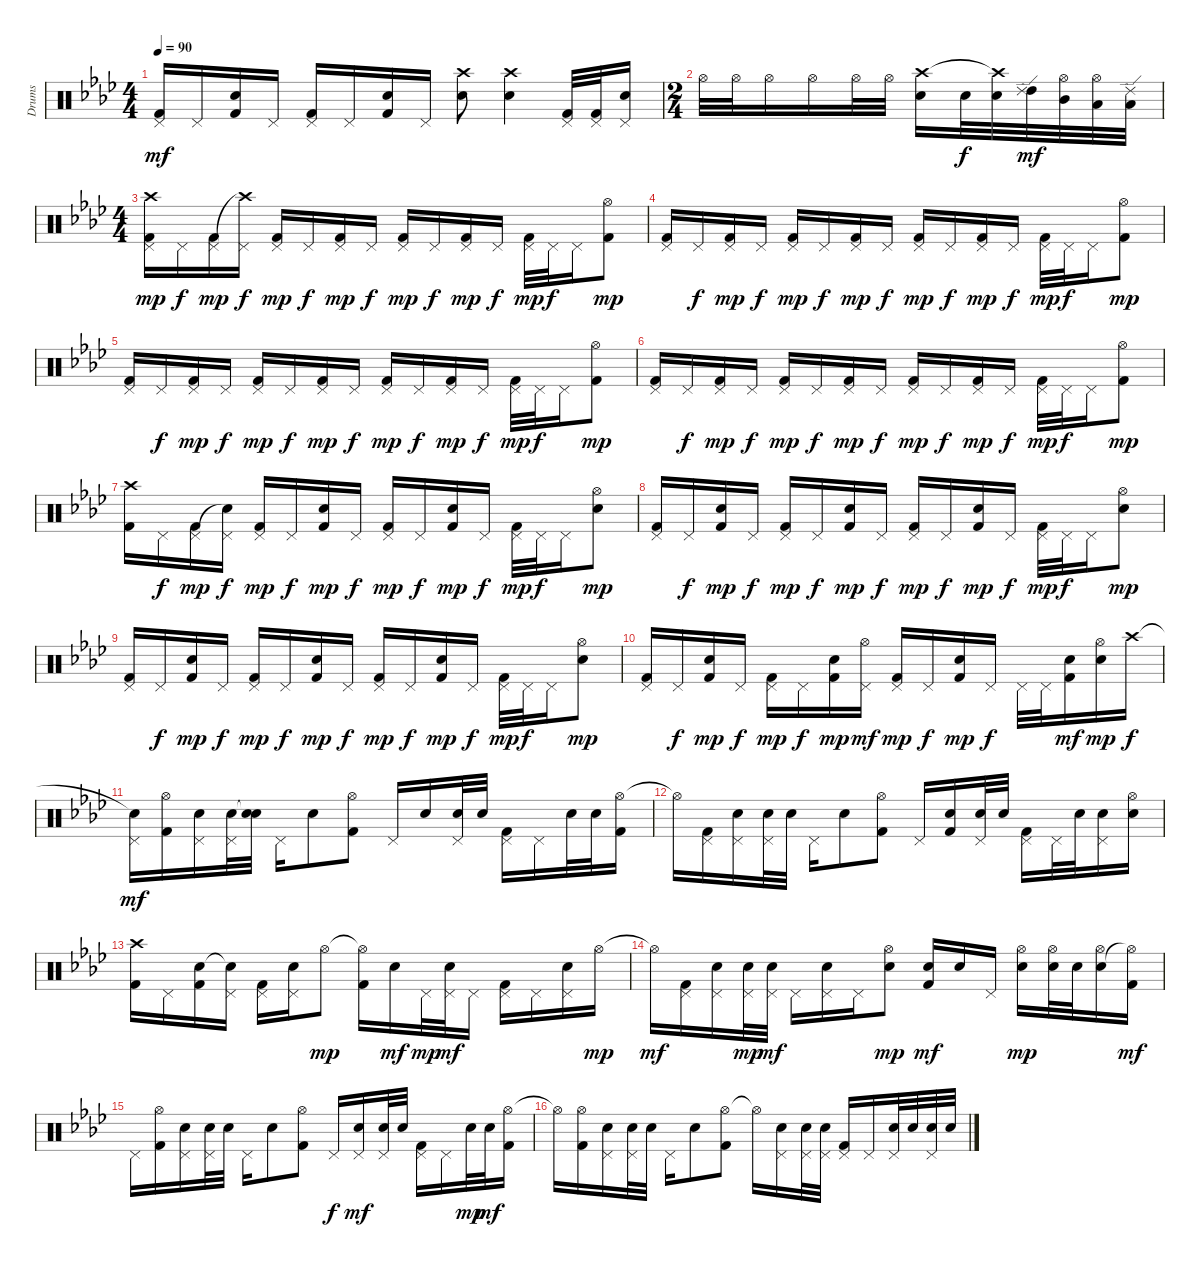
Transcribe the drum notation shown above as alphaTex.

\track ("Drums" "Drums") {instrument percussion}
\staff {score}
\articulation defaults
\ts (4 4)
\tempo 90
\clef neutral
\ks ab
("Pedal Hi-Hat (hit)" "Kick (hit) 2").16{dy mf} "Pedal Hi-Hat (hit)".16 ("Snare (hit) 2" "Kick (hit) 2").16 "Pedal Hi-Hat (hit)".16 ("Pedal Hi-Hat (hit)" "Kick (hit) 2").16 "Pedal Hi-Hat (hit)".16 ("Snare (hit) 2" "Kick (hit) 2").16 "Pedal Hi-Hat (hit)".16 ("Snare (hit) 2" "Crash high (hit)").8 ("Snare (hit) 2" "Crash high (hit)").4 ("Pedal Hi-Hat (hit)" "Kick (hit) 2").32 ("Pedal Hi-Hat (hit)" "Kick (hit) 2").32 ("Snare (hit) 2" "Pedal Hi-Hat (hit)").16 |
\ts (2 4)
"Hi-Hat (open)".32 "Hi-Hat (open)".32 "Hi-Hat (open)".16 "Hi-Hat (open)".16 "Hi-Hat (open)".32 "Hi-Hat (open)".32 ("Snare (hit) 2" "Crash high (hit)").16 "Snare (hit) 2".32{dy f} ("Snare (hit) 2" "Crash high (hit)"{t}).32 ("High Tom (hit)" "Ride (edge) 2").32{dy mf} ("Mid Tom (hit)" "Hi-Hat (open)").32 ("Low Tom (hit)" "Hi-Hat (open)").32 ("Low Floor Tom (hit)" "Ride (edge) 2").32 |
\ts (4 4)
("Crash high (hit)" "Pedal Hi-Hat (hit)" "Kick (hit) 2").16{dy mp} "Pedal Hi-Hat (hit)".16{dy f} ("Pedal Hi-Hat (hit)" "Kick (hit) 2").16{dy mp} ("Crash high (hit)"{t} "Pedal Hi-Hat (hit)").16{dy f} ("Pedal Hi-Hat (hit)" "Kick (hit) 2").16{dy mp} "Pedal Hi-Hat (hit)".16{dy f} ("Pedal Hi-Hat (hit)" "Kick (hit) 2").16{dy mp} "Pedal Hi-Hat (hit)".16{dy f} ("Pedal Hi-Hat (hit)" "Kick (hit) 2").16{dy mp} "Pedal Hi-Hat (hit)".16{dy f} ("Pedal Hi-Hat (hit)" "Kick (hit) 2").16{dy mp} "Pedal Hi-Hat (hit)".16{dy f} ("Pedal Hi-Hat (hit)" "Kick (hit) 2").32{dy mp} "Pedal Hi-Hat (hit)".32{dy f} "Pedal Hi-Hat (hit)".16 ("Hi-Hat (open)" "Kick (hit) 2").8{dy mp} |
("Pedal Hi-Hat (hit)" "Kick (hit) 2").16 "Pedal Hi-Hat (hit)".16{dy f} ("Pedal Hi-Hat (hit)" "Kick (hit) 2").16{dy mp} "Pedal Hi-Hat (hit)".16{dy f} ("Pedal Hi-Hat (hit)" "Kick (hit) 2").16{dy mp} "Pedal Hi-Hat (hit)".16{dy f} ("Pedal Hi-Hat (hit)" "Kick (hit) 2").16{dy mp} "Pedal Hi-Hat (hit)".16{dy f} ("Pedal Hi-Hat (hit)" "Kick (hit) 2").16{dy mp} "Pedal Hi-Hat (hit)".16{dy f} ("Pedal Hi-Hat (hit)" "Kick (hit) 2").16{dy mp} "Pedal Hi-Hat (hit)".16{dy f} ("Pedal Hi-Hat (hit)" "Kick (hit) 2").32{dy mp} "Pedal Hi-Hat (hit)".32{dy f} "Pedal Hi-Hat (hit)".16 ("Hi-Hat (open)" "Kick (hit) 2").8{dy mp} |
("Pedal Hi-Hat (hit)" "Kick (hit) 2").16 "Pedal Hi-Hat (hit)".16{dy f} ("Pedal Hi-Hat (hit)" "Kick (hit) 2").16{dy mp} "Pedal Hi-Hat (hit)".16{dy f} ("Pedal Hi-Hat (hit)" "Kick (hit) 2").16{dy mp} "Pedal Hi-Hat (hit)".16{dy f} ("Pedal Hi-Hat (hit)" "Kick (hit) 2").16{dy mp} "Pedal Hi-Hat (hit)".16{dy f} ("Pedal Hi-Hat (hit)" "Kick (hit) 2").16{dy mp} "Pedal Hi-Hat (hit)".16{dy f} ("Pedal Hi-Hat (hit)" "Kick (hit) 2").16{dy mp} "Pedal Hi-Hat (hit)".16{dy f} ("Pedal Hi-Hat (hit)" "Kick (hit) 2").32{dy mp} "Pedal Hi-Hat (hit)".32{dy f} "Pedal Hi-Hat (hit)".16 ("Hi-Hat (open)" "Kick (hit) 2").8{dy mp} |
("Pedal Hi-Hat (hit)" "Kick (hit) 2").16 "Pedal Hi-Hat (hit)".16{dy f} ("Pedal Hi-Hat (hit)" "Kick (hit) 2").16{dy mp} "Pedal Hi-Hat (hit)".16{dy f} ("Pedal Hi-Hat (hit)" "Kick (hit) 2").16{dy mp} "Pedal Hi-Hat (hit)".16{dy f} ("Pedal Hi-Hat (hit)" "Kick (hit) 2").16{dy mp} "Pedal Hi-Hat (hit)".16{dy f} ("Pedal Hi-Hat (hit)" "Kick (hit) 2").16{dy mp} "Pedal Hi-Hat (hit)".16{dy f} ("Pedal Hi-Hat (hit)" "Kick (hit) 2").16{dy mp} "Pedal Hi-Hat (hit)".16{dy f} ("Pedal Hi-Hat (hit)" "Kick (hit) 2").32{dy mp} "Pedal Hi-Hat (hit)".32{dy f} "Pedal Hi-Hat (hit)".16 ("Hi-Hat (open)" "Kick (hit) 2").8{dy mp} |
("Crash high (hit)" "Kick (hit) 2").16 "Pedal Hi-Hat (hit)".16{dy f} ("Pedal Hi-Hat (hit)" "Kick (hit) 2").16{dy mp} ("Snare (hit)"{t} "Pedal Hi-Hat (hit)").16{dy f} ("Pedal Hi-Hat (hit)" "Kick (hit) 2").16{dy mp} "Pedal Hi-Hat (hit)".16{dy f} ("Snare (hit) 2" "Kick (hit) 2").16{dy mp} "Pedal Hi-Hat (hit)".16{dy f} ("Pedal Hi-Hat (hit)" "Kick (hit) 2").16{dy mp} "Pedal Hi-Hat (hit)".16{dy f} ("Snare (hit) 2" "Kick (hit) 2").16{dy mp} "Pedal Hi-Hat (hit)".16{dy f} ("Pedal Hi-Hat (hit)" "Kick (hit) 2").32{dy mp} "Pedal Hi-Hat (hit)".32{dy f} "Pedal Hi-Hat (hit)".16 ("Snare (hit) 2" "Hi-Hat (open)").8{dy mp} |
("Pedal Hi-Hat (hit)" "Kick (hit) 2").16 "Pedal Hi-Hat (hit)".16{dy f} ("Snare (hit) 2" "Kick (hit) 2").16{dy mp} "Pedal Hi-Hat (hit)".16{dy f} ("Pedal Hi-Hat (hit)" "Kick (hit) 2").16{dy mp} "Pedal Hi-Hat (hit)".16{dy f} ("Snare (hit) 2" "Kick (hit) 2").16{dy mp} "Pedal Hi-Hat (hit)".16{dy f} ("Pedal Hi-Hat (hit)" "Kick (hit) 2").16{dy mp} "Pedal Hi-Hat (hit)".16{dy f} ("Snare (hit) 2" "Kick (hit) 2").16{dy mp} "Pedal Hi-Hat (hit)".16{dy f} ("Pedal Hi-Hat (hit)" "Kick (hit) 2").32{dy mp} "Pedal Hi-Hat (hit)".32{dy f} "Pedal Hi-Hat (hit)".16 ("Snare (hit) 2" "Hi-Hat (open)").8{dy mp} |
("Pedal Hi-Hat (hit)" "Kick (hit) 2").16 "Pedal Hi-Hat (hit)".16{dy f} ("Snare (hit) 2" "Kick (hit) 2").16{dy mp} "Pedal Hi-Hat (hit)".16{dy f} ("Pedal Hi-Hat (hit)" "Kick (hit) 2").16{dy mp} "Pedal Hi-Hat (hit)".16{dy f} ("Snare (hit) 2" "Kick (hit) 2").16{dy mp} "Pedal Hi-Hat (hit)".16{dy f} ("Pedal Hi-Hat (hit)" "Kick (hit) 2").16{dy mp} "Pedal Hi-Hat (hit)".16{dy f} ("Snare (hit) 2" "Kick (hit) 2").16{dy mp} "Pedal Hi-Hat (hit)".16{dy f} ("Pedal Hi-Hat (hit)" "Kick (hit) 2").32{dy mp} "Pedal Hi-Hat (hit)".32{dy f} "Pedal Hi-Hat (hit)".16 ("Snare (hit) 2" "Hi-Hat (open)").8{dy mp} |
("Pedal Hi-Hat (hit)" "Kick (hit) 2").16 "Pedal Hi-Hat (hit)".16{dy f} ("Snare (hit) 2" "Kick (hit) 2").16{dy mp} "Pedal Hi-Hat (hit)".16{dy f} ("Pedal Hi-Hat (hit)" "Kick (hit) 2").16{dy mp} "Pedal Hi-Hat (hit)".16{dy f} ("Snare (hit) 2" "Kick (hit) 2").16{dy mp} ("Hi-Hat (open)" "Pedal Hi-Hat (hit)").16{dy mf} ("Pedal Hi-Hat (hit)" "Kick (hit) 2").16{dy mp} "Pedal Hi-Hat (hit)".16{dy f} ("Snare (hit) 2" "Kick (hit) 2").16{dy mp} "Pedal Hi-Hat (hit)".16{dy f} "Pedal Hi-Hat (hit)".32 "Pedal Hi-Hat (hit)".32 ("Snare (hit) 2" "Kick (hit) 2").16{dy mf} ("Snare (hit) 2" "Hi-Hat (open)").16{dy mp} "Crash high (hit)".16{dy f} |
("Snare (hit)"{t} "Pedal Hi-Hat (hit)").16{dy mf} ("Hi-Hat (open)" "Kick (hit) 2").16 ("Snare (hit) 2" "Pedal Hi-Hat (hit)").16 ("Snare (hit) 2" "Pedal Hi-Hat (hit)").32 ("Snare (hit)"{t} "Snare (hit) 2").32 "Pedal Hi-Hat (hit)".16 "Snare (hit) 2".8 ("Hi-Hat (open)" "Kick (hit) 2").8 "Pedal Hi-Hat (hit)".16 "Snare (hit) 2".16 ("Snare (hit) 2" "Pedal Hi-Hat (hit)").32 "Snare (hit) 2".32 ("Pedal Hi-Hat (hit)" "Kick (hit) 2").16 "Pedal Hi-Hat (hit)".16 "Snare (hit) 2".32 "Snare (hit) 2".32 ("Hi-Hat (open)" "Kick (hit) 2").16 |
"Hi-Hat (open)"{t}.16 ("Pedal Hi-Hat (hit)" "Kick (hit) 2").16 ("Snare (hit) 2" "Pedal Hi-Hat (hit)").16 ("Snare (hit) 2" "Pedal Hi-Hat (hit)").32 "Snare (hit) 2".32 "Pedal Hi-Hat (hit)".16 "Snare (hit) 2".8 ("Hi-Hat (open)" "Kick (hit) 2").8 "Pedal Hi-Hat (hit)".16 ("Snare (hit) 2" "Kick (hit) 2").16 ("Snare (hit) 2" "Pedal Hi-Hat (hit)").32 "Snare (hit) 2".32 ("Pedal Hi-Hat (hit)" "Kick (hit) 2").16 "Pedal Hi-Hat (hit)".32 "Snare (hit) 2".32 ("Snare (hit) 2" "Pedal Hi-Hat (hit)").16 ("Snare (hit) 2" "Hi-Hat (open)").16 |
("Crash high (hit)" "Kick (hit) 2").16 "Pedal Hi-Hat (hit)".16 ("Snare (hit) 2" "Kick (hit) 2").16 ("Snare (hit)"{t} "Pedal Hi-Hat (hit)").16 ("Pedal Hi-Hat (hit)" "Kick (hit) 2").16 ("Snare (hit) 2" "Pedal Hi-Hat (hit)").16 "Hi-Hat (open)".8{dy mp} ("Hi-Hat (open)"{t} "Kick (hit) 2").16 "Snare (hit) 2".16{dy mf} "Pedal Hi-Hat (hit)".32{dy mp} ("Snare (hit) 2" "Pedal Hi-Hat (hit)").32{dy mf} "Pedal Hi-Hat (hit)".16 ("Pedal Hi-Hat (hit)" "Kick (hit) 2").16 "Pedal Hi-Hat (hit)".16 ("Snare (hit) 2" "Pedal Hi-Hat (hit)").16 "Hi-Hat (open)".16{dy mp} |
"Hi-Hat (open)"{t}.16{dy mf} ("Pedal Hi-Hat (hit)" "Kick (hit) 2").16 ("Snare (hit) 2" "Pedal Hi-Hat (hit)").16 ("Snare (hit) 2" "Pedal Hi-Hat (hit)").32{dy mp} ("Snare (hit) 2" "Pedal Hi-Hat (hit)").32{dy mf} "Pedal Hi-Hat (hit)".16 ("Snare (hit) 2" "Pedal Hi-Hat (hit)").16 "Pedal Hi-Hat (hit)".16 ("Snare (hit) 2" "Hi-Hat (open)").8{dy mp} ("Snare (hit) 2" "Kick (hit) 2").16{dy mf} "Snare (hit) 2".16 "Pedal Hi-Hat (hit)".16 ("Snare (hit) 2" "Hi-Hat (open)").16{dy mp} ("Snare (hit) 2" "Hi-Hat (open)").32 "Snare (hit) 2".32 ("Snare (hit) 2" "Hi-Hat (open)").16 ("Hi-Hat (open)"{t} "Kick (hit) 2").16{dy mf} |
"Pedal Hi-Hat (hit)".16 ("Hi-Hat (open)" "Kick (hit) 2").16 ("Snare (hit) 2" "Pedal Hi-Hat (hit)").16 ("Snare (hit) 2" "Pedal Hi-Hat (hit)").32 "Snare (hit) 2".32 "Pedal Hi-Hat (hit)".16 "Snare (hit) 2".8 ("Hi-Hat (open)" "Kick (hit) 2").8 "Pedal Hi-Hat (hit)".16{dy f} ("Snare (hit) 2" "Pedal Hi-Hat (hit)").16{dy mf} ("Snare (hit) 2" "Pedal Hi-Hat (hit)").32 "Snare (hit) 2".32 ("Pedal Hi-Hat (hit)" "Kick (hit) 2").16 "Pedal Hi-Hat (hit)".16 "Snare (hit) 2".32{dy mp} "Snare (hit) 2".32{dy mf} ("Hi-Hat (open)" "Kick (hit) 2").16 |
"Hi-Hat (open)"{t}.16 ("Hi-Hat (open)" "Kick (hit) 2").16 ("Snare (hit) 2" "Pedal Hi-Hat (hit)").16 ("Snare (hit) 2" "Pedal Hi-Hat (hit)").32 "Snare (hit) 2".32 "Pedal Hi-Hat (hit)".16 "Snare (hit) 2".8 ("Hi-Hat (open)" "Kick (hit) 2").8 "Hi-Hat (open)"{t}.16 ("Snare (hit) 2" "Pedal Hi-Hat (hit)").16 ("Snare (hit) 2" "Pedal Hi-Hat (hit)").32 ("Snare (hit) 2" "Pedal Hi-Hat (hit)").32 ("Pedal Hi-Hat (hit)" "Kick (hit) 2").16 "Pedal Hi-Hat (hit)".16 ("Snare (hit) 2" "Pedal Hi-Hat (hit)").32 "Snare (hit) 2".32 ("Snare (hit) 2" "Pedal Hi-Hat (hit)").32 "Snare (hit) 2".32
